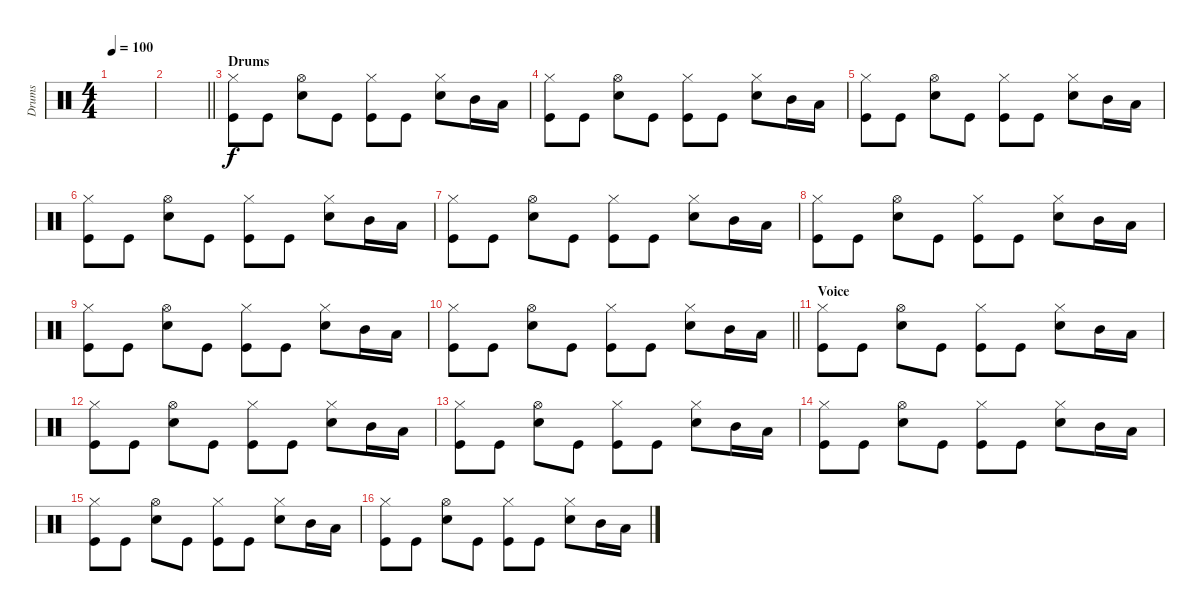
\track ("Drums" "Drums") {instrument percussion}
\staff {score}
\articulation defaults
\ts (4 4)
\tempo 100
\clef neutral
\ks c
|
\barLineRight lightlight
|
\section ("" "Drums")
("Kick (hit)" "Hi-Hat (closed)").8 "Kick (hit)".8 ("Electric Snare (hit)" "Hi-Hat (open)").8 "Kick (hit)".8 ("Kick (hit)" "Hi-Hat (closed)").8 "Kick (hit)".8 ("Electric Snare (hit)" "Hi-Hat (closed)").8 "Mid Tom (hit)".16 "Low Tom (hit)".16 |
("Kick (hit)" "Hi-Hat (closed)").8 "Kick (hit)".8 ("Electric Snare (hit)" "Hi-Hat (open)").8 "Kick (hit)".8 ("Kick (hit)" "Hi-Hat (closed)").8 "Kick (hit)".8 ("Electric Snare (hit)" "Hi-Hat (closed)").8 "Mid Tom (hit)".16 "Low Tom (hit)".16 |
("Kick (hit)" "Hi-Hat (closed)").8 "Kick (hit)".8 ("Electric Snare (hit)" "Hi-Hat (open)").8 "Kick (hit)".8 ("Kick (hit)" "Hi-Hat (closed)").8 "Kick (hit)".8 ("Electric Snare (hit)" "Hi-Hat (closed)").8 "Mid Tom (hit)".16 "Low Tom (hit)".16 |
("Kick (hit)" "Hi-Hat (closed)").8 "Kick (hit)".8 ("Electric Snare (hit)" "Hi-Hat (open)").8 "Kick (hit)".8 ("Kick (hit)" "Hi-Hat (closed)").8 "Kick (hit)".8 ("Electric Snare (hit)" "Hi-Hat (closed)").8 "Mid Tom (hit)".16 "Low Tom (hit)".16 |
("Kick (hit)" "Hi-Hat (closed)").8 "Kick (hit)".8 ("Electric Snare (hit)" "Hi-Hat (open)").8 "Kick (hit)".8 ("Kick (hit)" "Hi-Hat (closed)").8 "Kick (hit)".8 ("Electric Snare (hit)" "Hi-Hat (closed)").8 "Mid Tom (hit)".16 "Low Tom (hit)".16 |
("Kick (hit)" "Hi-Hat (closed)").8 "Kick (hit)".8 ("Electric Snare (hit)" "Hi-Hat (open)").8 "Kick (hit)".8 ("Kick (hit)" "Hi-Hat (closed)").8 "Kick (hit)".8 ("Electric Snare (hit)" "Hi-Hat (closed)").8 "Mid Tom (hit)".16 "Low Tom (hit)".16 |
("Kick (hit)" "Hi-Hat (closed)").8 "Kick (hit)".8 ("Electric Snare (hit)" "Hi-Hat (open)").8 "Kick (hit)".8 ("Kick (hit)" "Hi-Hat (closed)").8 "Kick (hit)".8 ("Electric Snare (hit)" "Hi-Hat (closed)").8 "Mid Tom (hit)".16 "Low Tom (hit)".16 |
\barLineRight lightlight
("Kick (hit)" "Hi-Hat (closed)").8 "Kick (hit)".8 ("Electric Snare (hit)" "Hi-Hat (open)").8 "Kick (hit)".8 ("Kick (hit)" "Hi-Hat (closed)").8 "Kick (hit)".8 ("Electric Snare (hit)" "Hi-Hat (closed)").8 "Mid Tom (hit)".16 "Low Tom (hit)".16 |
\section ("" "Voice")
("Kick (hit)" "Hi-Hat (closed)").8 "Kick (hit)".8 ("Electric Snare (hit)" "Hi-Hat (open)").8 "Kick (hit)".8 ("Kick (hit)" "Hi-Hat (closed)").8 "Kick (hit)".8 ("Electric Snare (hit)" "Hi-Hat (closed)").8 "Mid Tom (hit)".16 "Low Tom (hit)".16 |
("Kick (hit)" "Hi-Hat (closed)").8 "Kick (hit)".8 ("Electric Snare (hit)" "Hi-Hat (open)").8 "Kick (hit)".8 ("Kick (hit)" "Hi-Hat (closed)").8 "Kick (hit)".8 ("Electric Snare (hit)" "Hi-Hat (closed)").8 "Mid Tom (hit)".16 "Low Tom (hit)".16 |
("Kick (hit)" "Hi-Hat (closed)").8 "Kick (hit)".8 ("Electric Snare (hit)" "Hi-Hat (open)").8 "Kick (hit)".8 ("Kick (hit)" "Hi-Hat (closed)").8 "Kick (hit)".8 ("Electric Snare (hit)" "Hi-Hat (closed)").8 "Mid Tom (hit)".16 "Low Tom (hit)".16 |
("Kick (hit)" "Hi-Hat (closed)").8 "Kick (hit)".8 ("Electric Snare (hit)" "Hi-Hat (open)").8 "Kick (hit)".8 ("Kick (hit)" "Hi-Hat (closed)").8 "Kick (hit)".8 ("Electric Snare (hit)" "Hi-Hat (closed)").8 "Mid Tom (hit)".16 "Low Tom (hit)".16 |
("Kick (hit)" "Hi-Hat (closed)").8 "Kick (hit)".8 ("Electric Snare (hit)" "Hi-Hat (open)").8 "Kick (hit)".8 ("Kick (hit)" "Hi-Hat (closed)").8 "Kick (hit)".8 ("Electric Snare (hit)" "Hi-Hat (closed)").8 "Mid Tom (hit)".16 "Low Tom (hit)".16 |
("Kick (hit)" "Hi-Hat (closed)").8 "Kick (hit)".8 ("Electric Snare (hit)" "Hi-Hat (open)").8 "Kick (hit)".8 ("Kick (hit)" "Hi-Hat (closed)").8 "Kick (hit)".8 ("Electric Snare (hit)" "Hi-Hat (closed)").8 "Mid Tom (hit)".16 "Low Tom (hit)".16
